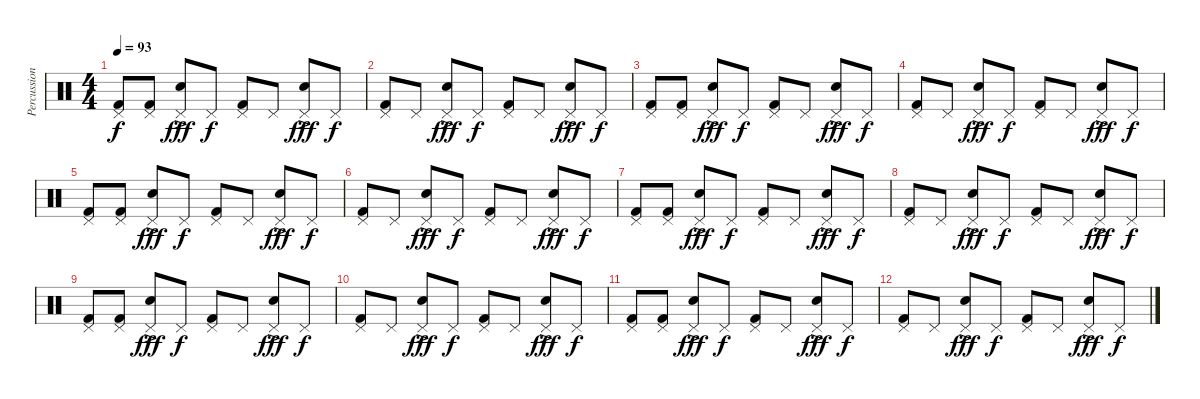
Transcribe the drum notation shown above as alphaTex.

\track ("Percussion" "Percussion") {instrument percussion}
\staff {score}
\articulation defaults
\ts (4 4)
\tempo 93
\clef neutral
\ks c
("Pedal Hi-Hat (hit)" "Kick (hit) 2").8{dy f} ("Pedal Hi-Hat (hit)" "Kick (hit) 2").8 ("Pedal Hi-Hat (hit)" "Electric Snare (hit)"{ac}).8{dy fff} "Pedal Hi-Hat (hit)".8{dy f} ("Pedal Hi-Hat (hit)" "Kick (hit) 2").8 "Pedal Hi-Hat (hit)".8 ("Pedal Hi-Hat (hit)" "Electric Snare (hit)"{ac}).8{dy fff} "Pedal Hi-Hat (hit)".8{dy f} |
("Pedal Hi-Hat (hit)" "Kick (hit) 2").8 "Pedal Hi-Hat (hit)".8 ("Pedal Hi-Hat (hit)" "Electric Snare (hit)"{ac}).8{dy fff} "Pedal Hi-Hat (hit)".8{dy f} ("Pedal Hi-Hat (hit)" "Kick (hit) 2").8 "Pedal Hi-Hat (hit)".8 ("Pedal Hi-Hat (hit)" "Electric Snare (hit)"{ac}).8{dy fff} "Pedal Hi-Hat (hit)".8{dy f} |
("Pedal Hi-Hat (hit)" "Kick (hit) 2").8 ("Pedal Hi-Hat (hit)" "Kick (hit) 2").8 ("Pedal Hi-Hat (hit)" "Electric Snare (hit)"{ac}).8{dy fff} "Pedal Hi-Hat (hit)".8{dy f} ("Pedal Hi-Hat (hit)" "Kick (hit) 2").8 "Pedal Hi-Hat (hit)".8 ("Pedal Hi-Hat (hit)" "Electric Snare (hit)"{ac}).8{dy fff} "Pedal Hi-Hat (hit)".8{dy f} |
("Pedal Hi-Hat (hit)" "Kick (hit) 2").8 "Pedal Hi-Hat (hit)".8 ("Pedal Hi-Hat (hit)" "Electric Snare (hit)"{ac}).8{dy fff} "Pedal Hi-Hat (hit)".8{dy f} ("Pedal Hi-Hat (hit)" "Kick (hit) 2").8 "Pedal Hi-Hat (hit)".8 ("Pedal Hi-Hat (hit)" "Electric Snare (hit)"{ac}).8{dy fff} "Pedal Hi-Hat (hit)".8{dy f} |
("Pedal Hi-Hat (hit)" "Kick (hit) 2").8 ("Pedal Hi-Hat (hit)" "Kick (hit) 2").8 ("Pedal Hi-Hat (hit)" "Electric Snare (hit)"{ac}).8{dy fff} "Pedal Hi-Hat (hit)".8{dy f} ("Pedal Hi-Hat (hit)" "Kick (hit) 2").8 "Pedal Hi-Hat (hit)".8 ("Pedal Hi-Hat (hit)" "Electric Snare (hit)"{ac}).8{dy fff} "Pedal Hi-Hat (hit)".8{dy f} |
("Pedal Hi-Hat (hit)" "Kick (hit) 2").8 "Pedal Hi-Hat (hit)".8 ("Pedal Hi-Hat (hit)" "Electric Snare (hit)"{ac}).8{dy fff} "Pedal Hi-Hat (hit)".8{dy f} ("Pedal Hi-Hat (hit)" "Kick (hit) 2").8 "Pedal Hi-Hat (hit)".8 ("Pedal Hi-Hat (hit)" "Electric Snare (hit)"{ac}).8{dy fff} "Pedal Hi-Hat (hit)".8{dy f} |
("Pedal Hi-Hat (hit)" "Kick (hit) 2").8 ("Pedal Hi-Hat (hit)" "Kick (hit) 2").8 ("Pedal Hi-Hat (hit)" "Electric Snare (hit)"{ac}).8{dy fff} "Pedal Hi-Hat (hit)".8{dy f} ("Pedal Hi-Hat (hit)" "Kick (hit) 2").8 "Pedal Hi-Hat (hit)".8 ("Pedal Hi-Hat (hit)" "Electric Snare (hit)"{ac}).8{dy fff} "Pedal Hi-Hat (hit)".8{dy f} |
("Pedal Hi-Hat (hit)" "Kick (hit) 2").8 "Pedal Hi-Hat (hit)".8 ("Pedal Hi-Hat (hit)" "Electric Snare (hit)"{ac}).8{dy fff} "Pedal Hi-Hat (hit)".8{dy f} ("Pedal Hi-Hat (hit)" "Kick (hit) 2").8 "Pedal Hi-Hat (hit)".8 ("Pedal Hi-Hat (hit)" "Electric Snare (hit)"{ac}).8{dy fff} "Pedal Hi-Hat (hit)".8{dy f} |
("Pedal Hi-Hat (hit)" "Kick (hit) 2").8 ("Pedal Hi-Hat (hit)" "Kick (hit) 2").8 ("Pedal Hi-Hat (hit)" "Electric Snare (hit)"{ac}).8{dy fff} "Pedal Hi-Hat (hit)".8{dy f} ("Pedal Hi-Hat (hit)" "Kick (hit) 2").8 "Pedal Hi-Hat (hit)".8 ("Pedal Hi-Hat (hit)" "Electric Snare (hit)"{ac}).8{dy fff} "Pedal Hi-Hat (hit)".8{dy f} |
("Pedal Hi-Hat (hit)" "Kick (hit) 2").8 "Pedal Hi-Hat (hit)".8 ("Pedal Hi-Hat (hit)" "Electric Snare (hit)"{ac}).8{dy fff} "Pedal Hi-Hat (hit)".8{dy f} ("Pedal Hi-Hat (hit)" "Kick (hit) 2").8 "Pedal Hi-Hat (hit)".8 ("Pedal Hi-Hat (hit)" "Electric Snare (hit)"{ac}).8{dy fff} "Pedal Hi-Hat (hit)".8{dy f} |
("Pedal Hi-Hat (hit)" "Kick (hit) 2").8 ("Pedal Hi-Hat (hit)" "Kick (hit) 2").8 ("Pedal Hi-Hat (hit)" "Electric Snare (hit)"{ac}).8{dy fff} "Pedal Hi-Hat (hit)".8{dy f} ("Pedal Hi-Hat (hit)" "Kick (hit) 2").8 "Pedal Hi-Hat (hit)".8 ("Pedal Hi-Hat (hit)" "Electric Snare (hit)"{ac}).8{dy fff} "Pedal Hi-Hat (hit)".8{dy f} |
("Pedal Hi-Hat (hit)" "Kick (hit) 2").8 "Pedal Hi-Hat (hit)".8 ("Pedal Hi-Hat (hit)" "Electric Snare (hit)"{ac}).8{dy fff} "Pedal Hi-Hat (hit)".8{dy f} ("Pedal Hi-Hat (hit)" "Kick (hit) 2").8 "Pedal Hi-Hat (hit)".8 ("Pedal Hi-Hat (hit)" "Electric Snare (hit)"{ac}).8{dy fff} "Pedal Hi-Hat (hit)".8{dy f}
